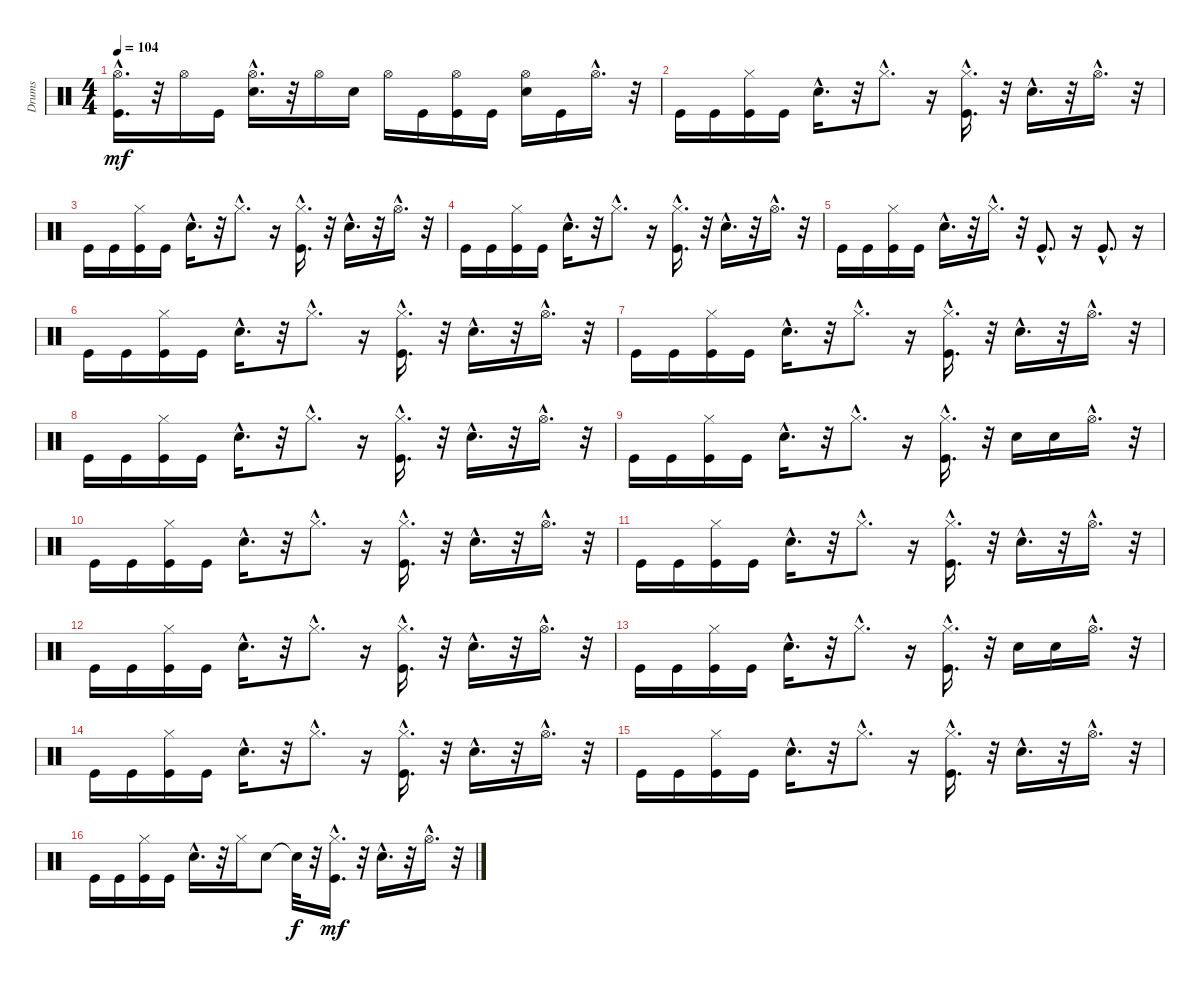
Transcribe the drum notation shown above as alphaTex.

\track ("Drums" "Drums") {instrument percussion}
\staff {score}
\articulation defaults
\ts (4 4)
\tempo 104
\clef neutral
\ks c
("Kick (hit)"{hac} "Hi-Hat (open)"{hac}).16{d dy mf} r.32 "Hi-Hat (open)".16 "Kick (hit)".16 ("Hi-Hat (open)"{hac} "Electric Snare (hit)"{hac}).16{d} r.32 "Hi-Hat (open)".16 "Electric Snare (hit)".16 "Hi-Hat (open)".16 "Kick (hit)".16 ("Kick (hit)" "Hi-Hat (open)").16 "Kick (hit)".16 ("Hi-Hat (open)" "Electric Snare (hit)").16 "Kick (hit)".16 "Hi-Hat (open)"{hac}.16{d} r.32 |
"Kick (hit)".16 "Kick (hit)".16 ("Hi-Hat (closed)" "Kick (hit)").16 "Kick (hit)".16 "Electric Snare (hit)"{hac}.16{d} r.32 "Hi-Hat (closed)"{hac}.8{d} r.16 ("Kick (hit)"{hac} "Hi-Hat (closed)"{hac}).16{d} r.32 "Electric Snare (hit)"{hac}.16{d} r.32 "Hi-Hat (open)"{hac}.16{d} r.32 |
"Kick (hit)".16 "Kick (hit)".16 ("Hi-Hat (closed)" "Kick (hit)").16 "Kick (hit)".16 "Electric Snare (hit)"{hac}.16{d} r.32 "Hi-Hat (closed)"{hac}.8{d} r.16 ("Hi-Hat (closed)"{hac} "Kick (hit)"{hac}).16{d} r.32 "Electric Snare (hit)"{hac}.16{d} r.32 "Hi-Hat (open)"{hac}.16{d} r.32 |
"Kick (hit)".16 "Kick (hit)".16 ("Kick (hit)" "Hi-Hat (closed)").16 "Kick (hit)".16 "Electric Snare (hit)"{hac}.16{d} r.32 "Hi-Hat (closed)"{hac}.8{d} r.16 ("Hi-Hat (closed)"{hac} "Kick (hit)"{hac}).16{d} r.32 "Electric Snare (hit)"{hac}.16{d} r.32 "Hi-Hat (open)"{hac}.16{d} r.32 |
"Kick (hit)".16 "Kick (hit)".16 ("Kick (hit)" "Hi-Hat (closed)").16 "Kick (hit)".16 "Electric Snare (hit)"{hac}.16{d} r.32 "Hi-Hat (closed)"{hac}.16{d} r.32 "Kick (hit)"{hac}.8{d} r.16 "Kick (hit)"{hac}.8{d} r.16 |
"Kick (hit)".16 "Kick (hit)".16 ("Kick (hit)" "Hi-Hat (closed)").16 "Kick (hit)".16 "Electric Snare (hit)"{hac}.16{d} r.32 "Hi-Hat (closed)"{hac}.8{d} r.16 ("Hi-Hat (closed)"{hac} "Kick (hit)"{hac}).16{d} r.32 "Electric Snare (hit)"{hac}.16{d} r.32 "Hi-Hat (open)"{hac}.16{d} r.32 |
"Kick (hit)".16 "Kick (hit)".16 ("Kick (hit)" "Hi-Hat (closed)").16 "Kick (hit)".16 "Electric Snare (hit)"{hac}.16{d} r.32 "Hi-Hat (closed)"{hac}.8{d} r.16 ("Kick (hit)"{hac} "Hi-Hat (closed)"{hac}).16{d} r.32 "Electric Snare (hit)"{hac}.16{d} r.32 "Hi-Hat (open)"{hac}.16{d} r.32 |
"Kick (hit)".16 "Kick (hit)".16 ("Hi-Hat (closed)" "Kick (hit)").16 "Kick (hit)".16 "Electric Snare (hit)"{hac}.16{d} r.32 "Hi-Hat (closed)"{hac}.8{d} r.16 ("Hi-Hat (closed)"{hac} "Kick (hit)"{hac}).16{d} r.32 "Electric Snare (hit)"{hac}.16{d} r.32 "Hi-Hat (open)"{hac}.16{d} r.32 |
"Kick (hit)".16 "Kick (hit)".16 ("Hi-Hat (closed)" "Kick (hit)").16 "Kick (hit)".16 "Electric Snare (hit)"{hac}.16{d} r.32 "Hi-Hat (closed)"{hac}.8{d} r.16 ("Hi-Hat (closed)"{hac} "Kick (hit)"{hac}).16{d} r.32 "Electric Snare (hit)".16 "Electric Snare (hit)".16 "Hi-Hat (open)"{hac}.16{d} r.32 |
"Kick (hit)".16 "Kick (hit)".16 ("Kick (hit)" "Hi-Hat (closed)").16 "Kick (hit)".16 "Electric Snare (hit)"{hac}.16{d} r.32 "Hi-Hat (closed)"{hac}.8{d} r.16 ("Hi-Hat (closed)"{hac} "Kick (hit)"{hac}).16{d} r.32 "Electric Snare (hit)"{hac}.16{d} r.32 "Hi-Hat (open)"{hac}.16{d} r.32 |
"Kick (hit)".16 "Kick (hit)".16 ("Hi-Hat (closed)" "Kick (hit)").16 "Kick (hit)".16 "Electric Snare (hit)"{hac}.16{d} r.32 "Hi-Hat (closed)"{hac}.8{d} r.16 ("Hi-Hat (closed)"{hac} "Kick (hit)"{hac}).16{d} r.32 "Electric Snare (hit)"{hac}.16{d} r.32 "Hi-Hat (open)"{hac}.16{d} r.32 |
"Kick (hit)".16 "Kick (hit)".16 ("Hi-Hat (closed)" "Kick (hit)").16 "Kick (hit)".16 "Electric Snare (hit)"{hac}.16{d} r.32 "Hi-Hat (closed)"{hac}.8{d} r.16 ("Hi-Hat (closed)"{hac} "Kick (hit)"{hac}).16{d} r.32 "Electric Snare (hit)"{hac}.16{d} r.32 "Hi-Hat (open)"{hac}.16{d} r.32 |
"Kick (hit)".16 "Kick (hit)".16 ("Hi-Hat (closed)" "Kick (hit)").16 "Kick (hit)".16 "Electric Snare (hit)"{hac}.16{d} r.32 "Hi-Hat (closed)"{hac}.8{d} r.16 ("Kick (hit)"{hac} "Hi-Hat (closed)"{hac}).16{d} r.32 "Electric Snare (hit)".16 "Electric Snare (hit)".16 "Hi-Hat (open)"{hac}.16{d} r.32 |
"Kick (hit)".16 "Kick (hit)".16 ("Hi-Hat (closed)" "Kick (hit)").16 "Kick (hit)".16 "Electric Snare (hit)"{hac}.16{d} r.32 "Hi-Hat (closed)"{hac}.8{d} r.16 ("Hi-Hat (closed)"{hac} "Kick (hit)"{hac}).16{d} r.32 "Electric Snare (hit)"{hac}.16{d} r.32 "Hi-Hat (open)"{hac}.16{d} r.32 |
"Kick (hit)".16 "Kick (hit)".16 ("Hi-Hat (closed)" "Kick (hit)").16 "Kick (hit)".16 "Electric Snare (hit)"{hac}.16{d} r.32 "Hi-Hat (closed)"{hac}.8{d} r.16 ("Hi-Hat (closed)"{hac} "Kick (hit)"{hac}).16{d} r.32 "Electric Snare (hit)"{hac}.16{d} r.32 "Hi-Hat (open)"{hac}.16{d} r.32 |
"Kick (hit)".16 "Kick (hit)".16 ("Hi-Hat (closed)" "Kick (hit)").16 "Kick (hit)".16 "Electric Snare (hit)"{hac}.16{d} r.32 "Hi-Hat (closed)".16 "Electric Snare (hit)".8 "Snare (hit)"{t}.32{dy f} r.32 ("Kick (hit)"{hac} "Hi-Hat (closed)"{hac}).16{d dy mf} r.32 "Electric Snare (hit)"{hac}.16{d} r.32 "Hi-Hat (open)"{hac}.16{d} r.32
